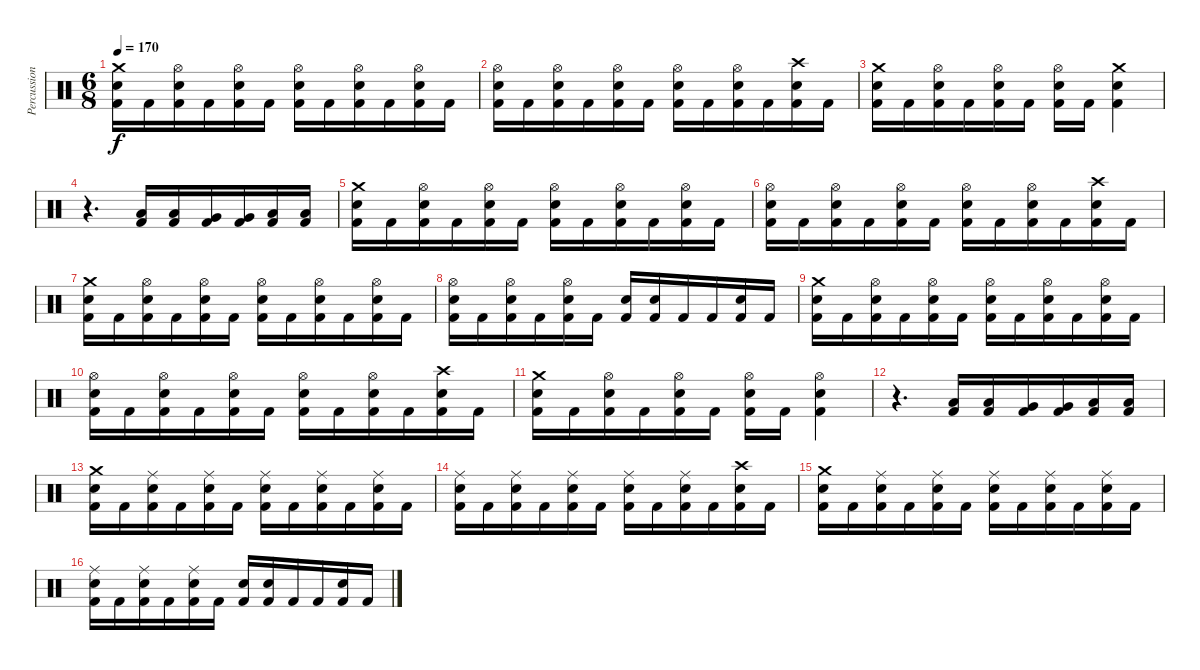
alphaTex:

\track ("Percussions" "Percussion") {instrument percussion}
\staff {score}
\articulation defaults
\ts (6 8)
\tempo 170
\clef neutral
\ks c
("Crash medium (hit)" "Electric Snare (hit)" "Kick (hit) 2").16{dy f} "Kick (hit) 2".16 ("Hi-Hat (open)" "Electric Snare (hit)" "Kick (hit) 2").16 "Kick (hit) 2".16 ("Hi-Hat (open)" "Electric Snare (hit)" "Kick (hit) 2").16 "Kick (hit) 2".16 ("Hi-Hat (open)" "Electric Snare (hit)" "Kick (hit) 2").16 "Kick (hit) 2".16 ("Hi-Hat (open)" "Electric Snare (hit)" "Kick (hit) 2").16 "Kick (hit) 2".16 ("Hi-Hat (open)" "Electric Snare (hit)" "Kick (hit) 2").16 "Kick (hit) 2".16 |
("Hi-Hat (open)" "Electric Snare (hit)" "Kick (hit) 2").16 "Kick (hit) 2".16 ("Hi-Hat (open)" "Electric Snare (hit)" "Kick (hit) 2").16 "Kick (hit) 2".16 ("Hi-Hat (open)" "Electric Snare (hit)" "Kick (hit) 2").16 "Kick (hit) 2".16 ("Hi-Hat (open)" "Electric Snare (hit)" "Kick (hit) 2").16 "Kick (hit) 2".16 ("Hi-Hat (open)" "Electric Snare (hit)" "Kick (hit) 2").16 "Kick (hit) 2".16 ("Crash high (hit)" "Electric Snare (hit)" "Kick (hit) 2").16 "Kick (hit) 2".16 |
("Crash medium (hit)" "Electric Snare (hit)" "Kick (hit) 2").16 "Kick (hit) 2".16 ("Hi-Hat (open)" "Electric Snare (hit)" "Kick (hit) 2").16 "Kick (hit) 2".16 ("Hi-Hat (open)" "Electric Snare (hit)" "Kick (hit) 2").16 "Kick (hit) 2".16 ("Hi-Hat (open)" "Electric Snare (hit)" "Kick (hit) 2").16 "Kick (hit) 2".16 ("Crash medium (hit)" "Electric Snare (hit)" "Kick (hit) 2").4 |
r.4{d} ("Low Tom (hit)" "Kick (hit) 2").16 ("Low Tom (hit)" "Kick (hit) 2").16 ("Very Low Tom (hit)" "Kick (hit) 2").16 ("Very Low Tom (hit)" "Kick (hit) 2").16 ("Low Floor Tom (hit)" "Kick (hit) 2").16 ("Low Floor Tom (hit)" "Kick (hit) 2").16 |
("Crash medium (hit)" "Electric Snare (hit)" "Kick (hit) 2").16 "Kick (hit) 2".16 ("Hi-Hat (open)" "Electric Snare (hit)" "Kick (hit) 2").16 "Kick (hit) 2".16 ("Hi-Hat (open)" "Electric Snare (hit)" "Kick (hit) 2").16 "Kick (hit) 2".16 ("Hi-Hat (open)" "Electric Snare (hit)" "Kick (hit) 2").16 "Kick (hit) 2".16 ("Hi-Hat (open)" "Electric Snare (hit)" "Kick (hit) 2").16 "Kick (hit) 2".16 ("Hi-Hat (open)" "Electric Snare (hit)" "Kick (hit) 2").16 "Kick (hit) 2".16 |
("Hi-Hat (open)" "Electric Snare (hit)" "Kick (hit) 2").16 "Kick (hit) 2".16 ("Hi-Hat (open)" "Electric Snare (hit)" "Kick (hit) 2").16 "Kick (hit) 2".16 ("Hi-Hat (open)" "Electric Snare (hit)" "Kick (hit) 2").16 "Kick (hit) 2".16 ("Hi-Hat (open)" "Electric Snare (hit)" "Kick (hit) 2").16 "Kick (hit) 2".16 ("Hi-Hat (open)" "Electric Snare (hit)" "Kick (hit) 2").16 "Kick (hit) 2".16 ("Crash high (hit)" "Electric Snare (hit)" "Kick (hit) 2").16 "Kick (hit) 2".16 |
("Crash medium (hit)" "Electric Snare (hit)" "Kick (hit) 2").16 "Kick (hit) 2".16 ("Hi-Hat (open)" "Electric Snare (hit)" "Kick (hit) 2").16 "Kick (hit) 2".16 ("Hi-Hat (open)" "Electric Snare (hit)" "Kick (hit) 2").16 "Kick (hit) 2".16 ("Hi-Hat (open)" "Electric Snare (hit)" "Kick (hit) 2").16 "Kick (hit) 2".16 ("Hi-Hat (open)" "Electric Snare (hit)" "Kick (hit) 2").16 "Kick (hit) 2".16 ("Hi-Hat (open)" "Electric Snare (hit)" "Kick (hit) 2").16 "Kick (hit) 2".16 |
("Hi-Hat (open)" "Electric Snare (hit)" "Kick (hit) 2").16 "Kick (hit) 2".16 ("Hi-Hat (open)" "Electric Snare (hit)" "Kick (hit) 2").16 "Kick (hit) 2".16 ("Hi-Hat (open)" "Electric Snare (hit)" "Kick (hit) 2").16 "Kick (hit) 2".16 ("Electric Snare (hit)" "Kick (hit) 2").16 ("Electric Snare (hit)" "Kick (hit) 2").16 "Kick (hit) 2".16 "Kick (hit) 2".16 ("Electric Snare (hit)" "Kick (hit) 2").16 "Kick (hit) 2".16 |
("Crash medium (hit)" "Electric Snare (hit)" "Kick (hit) 2").16 "Kick (hit) 2".16 ("Hi-Hat (open)" "Electric Snare (hit)" "Kick (hit) 2").16 "Kick (hit) 2".16 ("Hi-Hat (open)" "Electric Snare (hit)" "Kick (hit) 2").16 "Kick (hit) 2".16 ("Hi-Hat (open)" "Electric Snare (hit)" "Kick (hit) 2").16 "Kick (hit) 2".16 ("Hi-Hat (open)" "Electric Snare (hit)" "Kick (hit) 2").16 "Kick (hit) 2".16 ("Hi-Hat (open)" "Electric Snare (hit)" "Kick (hit) 2").16 "Kick (hit) 2".16 |
("Hi-Hat (open)" "Electric Snare (hit)" "Kick (hit) 2").16 "Kick (hit) 2".16 ("Hi-Hat (open)" "Electric Snare (hit)" "Kick (hit) 2").16 "Kick (hit) 2".16 ("Hi-Hat (open)" "Electric Snare (hit)" "Kick (hit) 2").16 "Kick (hit) 2".16 ("Hi-Hat (open)" "Electric Snare (hit)" "Kick (hit) 2").16 "Kick (hit) 2".16 ("Hi-Hat (open)" "Electric Snare (hit)" "Kick (hit) 2").16 "Kick (hit) 2".16 ("Crash high (hit)" "Electric Snare (hit)" "Kick (hit) 2").16 "Kick (hit) 2".16 |
("Crash medium (hit)" "Electric Snare (hit)" "Kick (hit) 2").16 "Kick (hit) 2".16 ("Hi-Hat (open)" "Electric Snare (hit)" "Kick (hit) 2").16 "Kick (hit) 2".16 ("Hi-Hat (open)" "Electric Snare (hit)" "Kick (hit) 2").16 "Kick (hit) 2".16 ("Hi-Hat (open)" "Electric Snare (hit)" "Kick (hit) 2").16 "Kick (hit) 2".16 ("Hi-Hat (open)" "Electric Snare (hit)" "Kick (hit) 2").4 |
r.4{d} ("Low Tom (hit)" "Kick (hit) 2").16 ("Low Tom (hit)" "Kick (hit) 2").16 ("Very Low Tom (hit)" "Kick (hit) 2").16 ("Very Low Tom (hit)" "Kick (hit) 2").16 ("Low Floor Tom (hit)" "Kick (hit) 2").16 ("Low Floor Tom (hit)" "Kick (hit) 2").16 |
("Crash medium (hit)" "Electric Snare (hit)" "Kick (hit) 2").16 "Kick (hit) 2".16 ("Ride (middle)" "Electric Snare (hit)" "Kick (hit) 2").16 "Kick (hit) 2".16 ("Ride (middle)" "Electric Snare (hit)" "Kick (hit) 2").16 "Kick (hit) 2".16 ("Ride (middle)" "Electric Snare (hit)" "Kick (hit) 2").16 "Kick (hit) 2".16 ("Ride (middle)" "Electric Snare (hit)" "Kick (hit) 2").16 "Kick (hit) 2".16 ("Ride (middle)" "Electric Snare (hit)" "Kick (hit) 2").16 "Kick (hit) 2".16 |
("Ride (middle)" "Electric Snare (hit)" "Kick (hit) 2").16 "Kick (hit) 2".16 ("Ride (middle)" "Electric Snare (hit)" "Kick (hit) 2").16 "Kick (hit) 2".16 ("Ride (middle)" "Electric Snare (hit)" "Kick (hit) 2").16 "Kick (hit) 2".16 ("Ride (middle)" "Electric Snare (hit)" "Kick (hit) 2").16 "Kick (hit) 2".16 ("Ride (middle)" "Electric Snare (hit)" "Kick (hit) 2").16 "Kick (hit) 2".16 ("Crash high (hit)" "Electric Snare (hit)" "Kick (hit) 2").16 "Kick (hit) 2".16 |
("Crash medium (hit)" "Electric Snare (hit)" "Kick (hit) 2").16 "Kick (hit) 2".16 ("Ride (middle)" "Electric Snare (hit)" "Kick (hit) 2").16 "Kick (hit) 2".16 ("Ride (middle)" "Electric Snare (hit)" "Kick (hit) 2").16 "Kick (hit) 2".16 ("Ride (middle)" "Electric Snare (hit)" "Kick (hit) 2").16 "Kick (hit) 2".16 ("Ride (middle)" "Electric Snare (hit)" "Kick (hit) 2").16 "Kick (hit) 2".16 ("Ride (middle)" "Electric Snare (hit)" "Kick (hit) 2").16 "Kick (hit) 2".16 |
("Ride (middle)" "Electric Snare (hit)" "Kick (hit) 2").16 "Kick (hit) 2".16 ("Ride (middle)" "Electric Snare (hit)" "Kick (hit) 2").16 "Kick (hit) 2".16 ("Ride (middle)" "Electric Snare (hit)" "Kick (hit) 2").16 "Kick (hit) 2".16 ("Electric Snare (hit)" "Kick (hit) 2").16 ("Electric Snare (hit)" "Kick (hit) 2").16 "Kick (hit) 2".16 "Kick (hit) 2".16 ("Electric Snare (hit)" "Kick (hit) 2").16 "Kick (hit) 2".16
